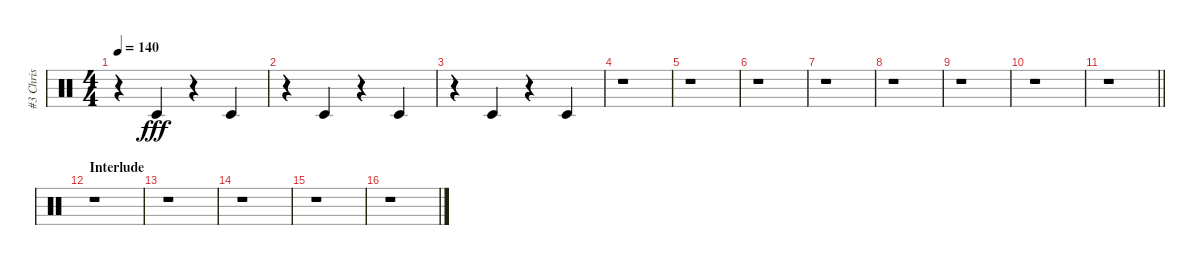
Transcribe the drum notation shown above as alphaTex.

\track ("#3 Chris" "#3 Chris") {solo instrument percussion}
\staff {score}
\articulation defaults
\ts (4 4)
\tempo 140
\clef neutral
\ks c
r.4{dy fff} "Timbale low (hit)".4 r.4 "Timbale low (hit)".4 |
r.4 "Timbale low (hit)".4 r.4 "Timbale low (hit)".4 |
r.4 "Timbale low (hit)".4 r.4 "Timbale low (hit)".4 |
r.1 |
r.1 |
r.1 |
r.1 |
r.1 |
r.1 |
r.1 |
\barLineRight lightlight
r.1 |
\section ("" "Interlude")
r.1 |
r.1 |
r.1 |
r.1 |
r.1
